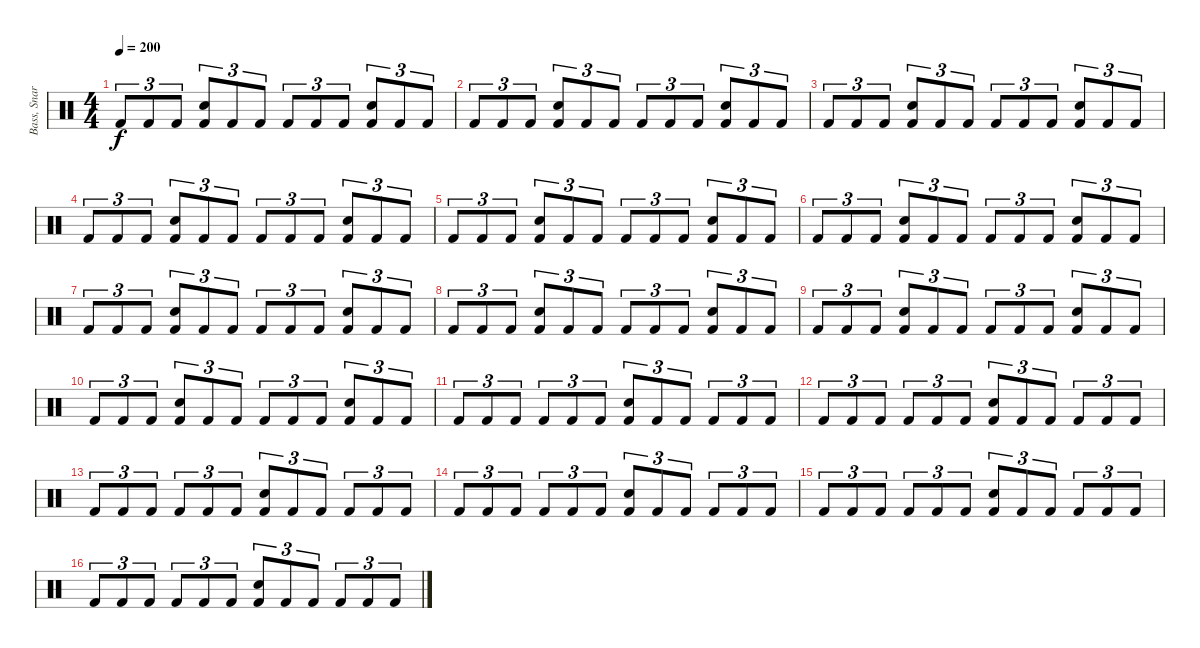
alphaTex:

\track ("Bass, Snare & Toms" "Bass, Snar") {instrument percussion}
\staff {score}
\articulation defaults
\ts (4 4)
\tempo 200
\clef neutral
\ks c "Kick (hit) 2".8{tu (3 2) dy f} "Kick (hit) 2".8{tu (3 2)} "Kick (hit) 2".8{tu (3 2)}
("Electric Snare (hit)" "Kick (hit) 2").8{tu (3 2)} "Kick (hit) 2".8{tu (3 2)} "Kick (hit) 2".8{tu (3 2)} "Kick (hit) 2".8{tu (3 2)} "Kick (hit) 2".8{tu (3 2)} "Kick (hit) 2".8{tu (3 2)} ("Electric Snare (hit)" "Kick (hit) 2").8{tu (3 2)} "Kick (hit) 2".8{tu (3 2)} "Kick (hit) 2".8{tu (3 2)} |
"Kick (hit) 2".8{tu (3 2)} "Kick (hit) 2".8{tu (3 2)} "Kick (hit) 2".8{tu (3 2)} ("Electric Snare (hit)" "Kick (hit) 2").8{tu (3 2)} "Kick (hit) 2".8{tu (3 2)} "Kick (hit) 2".8{tu (3 2)} "Kick (hit) 2".8{tu (3 2)} "Kick (hit) 2".8{tu (3 2)} "Kick (hit) 2".8{tu (3 2)} ("Electric Snare (hit)" "Kick (hit) 2").8{tu (3 2)} "Kick (hit) 2".8{tu (3 2)} "Kick (hit) 2".8{tu (3 2)} |
"Kick (hit) 2".8{tu (3 2)} "Kick (hit) 2".8{tu (3 2)} "Kick (hit) 2".8{tu (3 2)} ("Electric Snare (hit)" "Kick (hit) 2").8{tu (3 2)} "Kick (hit) 2".8{tu (3 2)} "Kick (hit) 2".8{tu (3 2)} "Kick (hit) 2".8{tu (3 2)} "Kick (hit) 2".8{tu (3 2)} "Kick (hit) 2".8{tu (3 2)} ("Electric Snare (hit)" "Kick (hit) 2").8{tu (3 2)} "Kick (hit) 2".8{tu (3 2)} "Kick (hit) 2".8{tu (3 2)} |
"Kick (hit) 2".8{tu (3 2)} "Kick (hit) 2".8{tu (3 2)} "Kick (hit) 2".8{tu (3 2)} ("Electric Snare (hit)" "Kick (hit) 2").8{tu (3 2)} "Kick (hit) 2".8{tu (3 2)} "Kick (hit) 2".8{tu (3 2)} "Kick (hit) 2".8{tu (3 2)} "Kick (hit) 2".8{tu (3 2)} "Kick (hit) 2".8{tu (3 2)} ("Electric Snare (hit)" "Kick (hit) 2").8{tu (3 2)} "Kick (hit) 2".8{tu (3 2)} "Kick (hit) 2".8{tu (3 2)} |
"Kick (hit) 2".8{tu (3 2)} "Kick (hit) 2".8{tu (3 2)} "Kick (hit) 2".8{tu (3 2)} ("Electric Snare (hit)" "Kick (hit) 2").8{tu (3 2)} "Kick (hit) 2".8{tu (3 2)} "Kick (hit) 2".8{tu (3 2)} "Kick (hit) 2".8{tu (3 2)} "Kick (hit) 2".8{tu (3 2)} "Kick (hit) 2".8{tu (3 2)} ("Electric Snare (hit)" "Kick (hit) 2").8{tu (3 2)} "Kick (hit) 2".8{tu (3 2)} "Kick (hit) 2".8{tu (3 2)} |
"Kick (hit) 2".8{tu (3 2)} "Kick (hit) 2".8{tu (3 2)} "Kick (hit) 2".8{tu (3 2)} ("Electric Snare (hit)" "Kick (hit) 2").8{tu (3 2)} "Kick (hit) 2".8{tu (3 2)} "Kick (hit) 2".8{tu (3 2)} "Kick (hit) 2".8{tu (3 2)} "Kick (hit) 2".8{tu (3 2)} "Kick (hit) 2".8{tu (3 2)} ("Electric Snare (hit)" "Kick (hit) 2").8{tu (3 2)} "Kick (hit) 2".8{tu (3 2)} "Kick (hit) 2".8{tu (3 2)} |
"Kick (hit) 2".8{tu (3 2)} "Kick (hit) 2".8{tu (3 2)} "Kick (hit) 2".8{tu (3 2)} ("Electric Snare (hit)" "Kick (hit) 2").8{tu (3 2)} "Kick (hit) 2".8{tu (3 2)} "Kick (hit) 2".8{tu (3 2)} "Kick (hit) 2".8{tu (3 2)} "Kick (hit) 2".8{tu (3 2)} "Kick (hit) 2".8{tu (3 2)} ("Electric Snare (hit)" "Kick (hit) 2").8{tu (3 2)} "Kick (hit) 2".8{tu (3 2)} "Kick (hit) 2".8{tu (3 2)} |
"Kick (hit) 2".8{tu (3 2)} "Kick (hit) 2".8{tu (3 2)} "Kick (hit) 2".8{tu (3 2)} ("Electric Snare (hit)" "Kick (hit) 2").8{tu (3 2)} "Kick (hit) 2".8{tu (3 2)} "Kick (hit) 2".8{tu (3 2)} "Kick (hit) 2".8{tu (3 2)} "Kick (hit) 2".8{tu (3 2)} "Kick (hit) 2".8{tu (3 2)} ("Electric Snare (hit)" "Kick (hit) 2").8{tu (3 2)} "Kick (hit) 2".8{tu (3 2)} "Kick (hit) 2".8{tu (3 2)} |
"Kick (hit) 2".8{tu (3 2)} "Kick (hit) 2".8{tu (3 2)} "Kick (hit) 2".8{tu (3 2)} ("Electric Snare (hit)" "Kick (hit) 2").8{tu (3 2)} "Kick (hit) 2".8{tu (3 2)} "Kick (hit) 2".8{tu (3 2)} "Kick (hit) 2".8{tu (3 2)} "Kick (hit) 2".8{tu (3 2)} "Kick (hit) 2".8{tu (3 2)} ("Electric Snare (hit)" "Kick (hit) 2").8{tu (3 2)} "Kick (hit) 2".8{tu (3 2)} "Kick (hit) 2".8{tu (3 2)} |
"Kick (hit) 2".8{tu (3 2)} "Kick (hit) 2".8{tu (3 2)} "Kick (hit) 2".8{tu (3 2)} ("Electric Snare (hit)" "Kick (hit) 2").8{tu (3 2)} "Kick (hit) 2".8{tu (3 2)} "Kick (hit) 2".8{tu (3 2)} "Kick (hit) 2".8{tu (3 2)} "Kick (hit) 2".8{tu (3 2)} "Kick (hit) 2".8{tu (3 2)} ("Electric Snare (hit)" "Kick (hit) 2").8{tu (3 2)} "Kick (hit) 2".8{tu (3 2)} "Kick (hit) 2".8{tu (3 2)} |
"Kick (hit) 2".8{tu (3 2)} "Kick (hit) 2".8{tu (3 2)} "Kick (hit) 2".8{tu (3 2)} "Kick (hit) 2".8{tu (3 2)} "Kick (hit) 2".8{tu (3 2)} "Kick (hit) 2".8{tu (3 2)} ("Electric Snare (hit)" "Kick (hit) 2").8{tu (3 2)} "Kick (hit) 2".8{tu (3 2)} "Kick (hit) 2".8{tu (3 2)} "Kick (hit) 2".8{tu (3 2)} "Kick (hit) 2".8{tu (3 2)} "Kick (hit) 2".8{tu (3 2)} |
"Kick (hit) 2".8{tu (3 2)} "Kick (hit) 2".8{tu (3 2)} "Kick (hit) 2".8{tu (3 2)} "Kick (hit) 2".8{tu (3 2)} "Kick (hit) 2".8{tu (3 2)} "Kick (hit) 2".8{tu (3 2)} ("Electric Snare (hit)" "Kick (hit) 2").8{tu (3 2)} "Kick (hit) 2".8{tu (3 2)} "Kick (hit) 2".8{tu (3 2)} "Kick (hit) 2".8{tu (3 2)} "Kick (hit) 2".8{tu (3 2)} "Kick (hit) 2".8{tu (3 2)} |
"Kick (hit) 2".8{tu (3 2)} "Kick (hit) 2".8{tu (3 2)} "Kick (hit) 2".8{tu (3 2)} "Kick (hit) 2".8{tu (3 2)} "Kick (hit) 2".8{tu (3 2)} "Kick (hit) 2".8{tu (3 2)} ("Electric Snare (hit)" "Kick (hit) 2").8{tu (3 2)} "Kick (hit) 2".8{tu (3 2)} "Kick (hit) 2".8{tu (3 2)} "Kick (hit) 2".8{tu (3 2)} "Kick (hit) 2".8{tu (3 2)} "Kick (hit) 2".8{tu (3 2)} |
"Kick (hit) 2".8{tu (3 2)} "Kick (hit) 2".8{tu (3 2)} "Kick (hit) 2".8{tu (3 2)} "Kick (hit) 2".8{tu (3 2)} "Kick (hit) 2".8{tu (3 2)} "Kick (hit) 2".8{tu (3 2)} ("Electric Snare (hit)" "Kick (hit) 2").8{tu (3 2)} "Kick (hit) 2".8{tu (3 2)} "Kick (hit) 2".8{tu (3 2)} "Kick (hit) 2".8{tu (3 2)} "Kick (hit) 2".8{tu (3 2)} "Kick (hit) 2".8{tu (3 2)} |
"Kick (hit) 2".8{tu (3 2)} "Kick (hit) 2".8{tu (3 2)} "Kick (hit) 2".8{tu (3 2)} "Kick (hit) 2".8{tu (3 2)} "Kick (hit) 2".8{tu (3 2)} "Kick (hit) 2".8{tu (3 2)} ("Electric Snare (hit)" "Kick (hit) 2").8{tu (3 2)} "Kick (hit) 2".8{tu (3 2)} "Kick (hit) 2".8{tu (3 2)} "Kick (hit) 2".8{tu (3 2)} "Kick (hit) 2".8{tu (3 2)} "Kick (hit) 2".8{tu (3 2)} |
"Kick (hit) 2".8{tu (3 2)} "Kick (hit) 2".8{tu (3 2)} "Kick (hit) 2".8{tu (3 2)} "Kick (hit) 2".8{tu (3 2)} "Kick (hit) 2".8{tu (3 2)} "Kick (hit) 2".8{tu (3 2)} ("Electric Snare (hit)" "Kick (hit) 2").8{tu (3 2)} "Kick (hit) 2".8{tu (3 2)} "Kick (hit) 2".8{tu (3 2)} "Kick (hit) 2".8{tu (3 2)} "Kick (hit) 2".8{tu (3 2)} "Kick (hit) 2".8{tu (3 2)}
